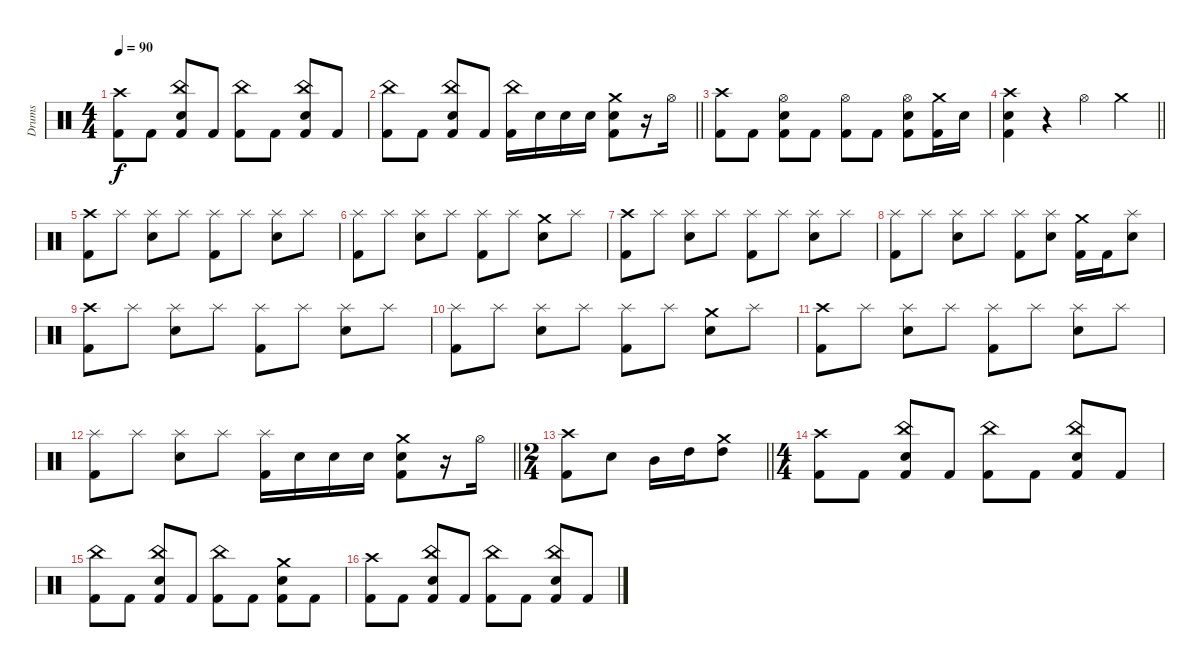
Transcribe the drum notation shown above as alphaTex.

\track ("Drums" "Drums") {instrument percussion}
\staff {score}
\articulation defaults
\ts (4 4)
\tempo 90
\clef neutral
\ks c
("Crash high (hit)" "Kick (hit) 2").8{dy f} "Kick (hit) 2".8 ("China (hit)" "Electric Snare (hit)" "Kick (hit) 2").8 "Kick (hit) 2".8 ("China (hit)" "Kick (hit) 2").8 "Kick (hit) 2".8 ("China (hit)" "Electric Snare (hit)" "Kick (hit) 2").8 "Kick (hit) 2".8 |
\barLineRight lightlight
("China (hit)" "Kick (hit) 2").8 "Kick (hit) 2".8 ("China (hit)" "Electric Snare (hit)" "Kick (hit) 2").8 "Kick (hit) 2".8 ("China (hit)" "Kick (hit) 2").16 "Electric Snare (hit)".16 "Electric Snare (hit)".16 "Electric Snare (hit)".16 ("Crash medium (hit)" "Snare (hit) 2" "Kick (hit) 2").8 r.16 "Hi-Hat (open)".16 |
("Crash high (hit)" "Kick (hit) 2").8 "Kick (hit) 2".8 ("Hi-Hat (open)" "Electric Snare (hit)" "Kick (hit) 2").8 "Kick (hit) 2".8 ("Hi-Hat (open)" "Kick (hit) 2").8 "Kick (hit) 2".8 ("Hi-Hat (open)" "Electric Snare (hit)" "Kick (hit) 2").8 ("Crash medium (hit)" "Kick (hit) 2").16 "Electric Snare (hit)".16 |
\barLineRight lightlight
("Crash high (hit)" "Electric Snare (hit)" "Kick (hit) 2").4 r.4 "Hi-Hat (open)".4 "Crash medium (hit)".4 |
\section ("" "")
("Crash high (hit)" "Kick (hit) 2").8 "Splash (hit)".8 ("Splash (hit)" "Electric Snare (hit)").8 "Splash (hit)".8 ("Splash (hit)" "Kick (hit) 2").8 "Splash (hit)".8 ("Splash (hit)" "Electric Snare (hit)").8 "Splash (hit)".8 |
("Splash (hit)" "Kick (hit) 2").8 "Splash (hit)".8 ("Splash (hit)" "Electric Snare (hit)").8 "Splash (hit)".8 ("Splash (hit)" "Kick (hit) 2").8 "Splash (hit)".8 ("Crash medium (hit)" "Electric Snare (hit)").8 "Splash (hit)".8 |
("Crash high (hit)" "Kick (hit) 2").8 "Splash (hit)".8 ("Splash (hit)" "Electric Snare (hit)").8 "Splash (hit)".8 ("Splash (hit)" "Kick (hit) 2").8 "Splash (hit)".8 ("Splash (hit)" "Electric Snare (hit)").8 "Splash (hit)".8 |
("Splash (hit)" "Kick (hit) 2").8 "Splash (hit)".8 ("Splash (hit)" "Electric Snare (hit)").8 "Splash (hit)".8 ("Splash (hit)" "Kick (hit) 2").8 ("Splash (hit)" "Electric Snare (hit)").8 ("Crash medium (hit)" "Kick (hit) 2").16 "Kick (hit) 2".16 ("Splash (hit)" "Snare (hit) 2").8 |
("Crash high (hit)" "Kick (hit) 2").8 "Splash (hit)".8 ("Splash (hit)" "Electric Snare (hit)").8 "Splash (hit)".8 ("Splash (hit)" "Kick (hit) 2").8 "Splash (hit)".8 ("Splash (hit)" "Electric Snare (hit)").8 "Splash (hit)".8 |
("Splash (hit)" "Kick (hit) 2").8 "Splash (hit)".8 ("Splash (hit)" "Electric Snare (hit)").8 "Splash (hit)".8 ("Splash (hit)" "Kick (hit) 2").8 "Splash (hit)".8 ("Crash medium (hit)" "Electric Snare (hit)").8 "Splash (hit)".8 |
("Crash high (hit)" "Kick (hit) 2").8 "Splash (hit)".8 ("Splash (hit)" "Electric Snare (hit)").8 "Splash (hit)".8 ("Splash (hit)" "Kick (hit) 2").8 "Splash (hit)".8 ("Splash (hit)" "Electric Snare (hit)").8 "Splash (hit)".8 |
\barLineRight lightlight
("Splash (hit)" "Kick (hit) 2").8 "Splash (hit)".8 ("Splash (hit)" "Electric Snare (hit)").8 "Splash (hit)".8 ("Splash (hit)" "Kick (hit) 2").16 "Electric Snare (hit)".16 "Electric Snare (hit)".16 "Electric Snare (hit)".16 ("Crash medium (hit)" "Snare (hit) 2" "Kick (hit) 2").8 r.16 "Hi-Hat (open)".16 |
\ts (2 4)
\barLineRight lightlight
("Crash high (hit)" "Kick (hit) 2").8 "Electric Snare (hit)".8 "Mid Tom (hit)".16 "High Tom (hit)".16 ("Crash medium (hit)" "High Tom (hit)").8 |
\ts (4 4)
\section ("" "")
("Crash high (hit)" "Kick (hit) 2").8 "Kick (hit) 2".8 ("China (hit)" "Electric Snare (hit)" "Kick (hit) 2").8 "Kick (hit) 2".8 ("China (hit)" "Kick (hit) 2").8 "Kick (hit) 2".8 ("China (hit)" "Electric Snare (hit)" "Kick (hit) 2").8 "Kick (hit) 2".8 |
("China (hit)" "Kick (hit) 2").8 "Kick (hit) 2".8 ("China (hit)" "Electric Snare (hit)" "Kick (hit) 2").8 "Kick (hit) 2".8 ("China (hit)" "Kick (hit) 2").8 "Kick (hit) 2".8 ("Crash medium (hit)" "Electric Snare (hit)" "Kick (hit) 2").8 "Kick (hit) 2".8 |
("Crash high (hit)" "Kick (hit) 2").8 "Kick (hit) 2".8 ("China (hit)" "Electric Snare (hit)" "Kick (hit) 2").8 "Kick (hit) 2".8 ("China (hit)" "Kick (hit) 2").8 "Kick (hit) 2".8 ("China (hit)" "Electric Snare (hit)" "Kick (hit) 2").8 "Kick (hit) 2".8
